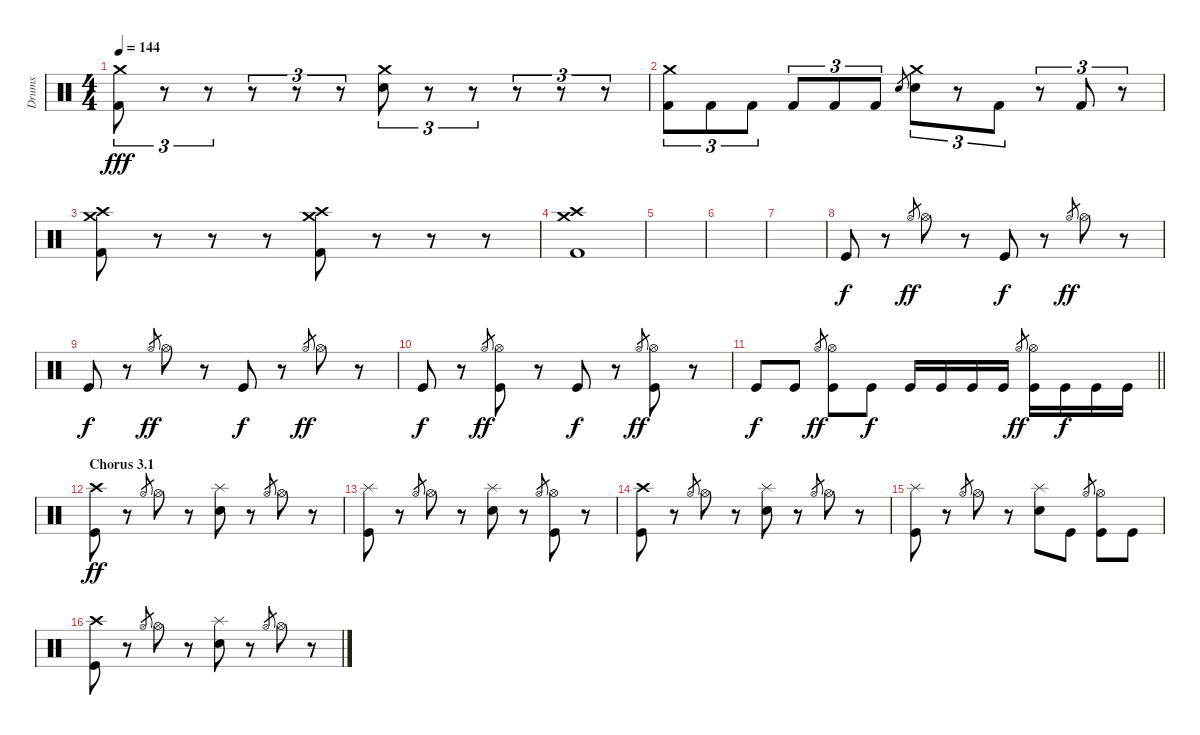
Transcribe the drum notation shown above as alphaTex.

\track ("Drums" "Drums") {instrument percussion}
\staff {score}
\articulation defaults
\ts (4 4)
\tempo 144
\clef neutral
\ks c
("Crash medium (hit)" "Kick (hit) 2").8{tu (3 2) dy fff} r.8{tu (3 2)} r.8{tu (3 2)} r.8{tu (3 2)} r.8{tu (3 2)} r.8{tu (3 2)} ("Crash medium (hit)" "Electric Snare (hit)").8{tu (3 2)} r.8{tu (3 2)} r.8{tu (3 2)} r.8{tu (3 2)} r.8{tu (3 2)} r.8{tu (3 2)} |
("Crash medium (hit)" "Kick (hit) 2").8{tu (3 2)} "Kick (hit) 2".8{tu (3 2)} "Kick (hit) 2".8{tu (3 2)} "Kick (hit) 2".8{tu (3 2)} "Kick (hit) 2".8{tu (3 2)} "Kick (hit) 2".8{tu (3 2)} "Electric Snare (hit)".8{gr} ("Crash medium (hit)" "Electric Snare (hit)").8{tu (3 2)} r.8{tu (3 2)} "Kick (hit) 2".8{tu (3 2)} r.8{tu (3 2)} "Kick (hit) 2".8{tu (3 2)} r.8{tu (3 2)} |
("Crash high (hit)" "Crash medium (hit)" "Kick (hit) 2").8 r.8{volume 0} r.8 r.8 ("Crash high (hit)" "Crash medium (hit)" "Kick (hit) 2").8{volume 16} r.8{volume 0} r.8 r.8 |
("Crash high (hit)" "Crash medium (hit)" "Kick (hit) 2").1{volume 16} |
|
|
|
"Kick (hit)".8{dy f} r.8 "Hi-Hat (open)".8{gr dy ff} "Hi-Hat (open)".8 r.8 "Kick (hit)".8{dy f} r.8 "Hi-Hat (open)".8{gr dy ff} "Hi-Hat (open)".8 r.8 |
"Kick (hit)".8{dy f} r.8 "Hi-Hat (open)".8{gr dy ff} "Hi-Hat (open)".8 r.8 "Kick (hit)".8{dy f} r.8 "Hi-Hat (open)".8{gr dy ff} "Hi-Hat (open)".8 r.8 |
"Kick (hit)".8{dy f} r.8 "Hi-Hat (open)".8{gr dy ff} ("Hi-Hat (open)" "Kick (hit)").8 r.8 "Kick (hit)".8{dy f} r.8 "Hi-Hat (open)".8{gr dy ff} ("Hi-Hat (open)" "Kick (hit)").8 r.8 |
\barLineRight lightlight "Kick (hit)".8{dy f} "Kick (hit)".8 "Hi-Hat (open)".8{gr dy ff}
("Hi-Hat (open)" "Kick (hit)").8 "Kick (hit)".8{dy f} "Kick (hit)".16 "Kick (hit)".16 "Kick (hit)".16 "Kick (hit)".16 "Hi-Hat (open)".8{gr dy ff} ("Hi-Hat (open)" "Kick (hit)").16 "Kick (hit)".16{dy f} "Kick (hit)".16 "Kick (hit)".16 |
\section ("" "Chorus 3.1")
("Crash high (hit)" "Kick (hit)").8{dy ff} r.8 "Hi-Hat (open)".8{gr} "Hi-Hat (open)".8 r.8 ("Splash (hit)" "Snare (hit) 2").8 r.8 "Hi-Hat (open)".8{gr} "Hi-Hat (open)".8 r.8 |
("Splash (hit)" "Kick (hit)").8 r.8 "Hi-Hat (open)".8{gr} "Hi-Hat (open)".8 r.8 ("Splash (hit)" "Snare (hit) 2").8 r.8 "Hi-Hat (open)".8{gr} ("Hi-Hat (open)" "Kick (hit)").8 r.8 |
("Crash high (hit)" "Kick (hit)").8 r.8 "Hi-Hat (open)".8{gr} "Hi-Hat (open)".8 r.8 ("Splash (hit)" "Snare (hit) 2").8 r.8 "Hi-Hat (open)".8{gr} "Hi-Hat (open)".8 r.8 |
("Splash (hit)" "Kick (hit)").8 r.8 "Hi-Hat (open)".8{gr} "Hi-Hat (open)".8 r.8 ("Splash (hit)" "Snare (hit) 2").8 "Kick (hit)".8 "Hi-Hat (open)".8{gr} ("Hi-Hat (open)" "Kick (hit)").8 "Kick (hit)".8 |
("Crash high (hit)" "Kick (hit)").8 r.8 "Hi-Hat (open)".8{gr} "Hi-Hat (open)".8 r.8 ("Splash (hit)" "Snare (hit) 2").8 r.8 "Hi-Hat (open)".8{gr} "Hi-Hat (open)".8 r.8
